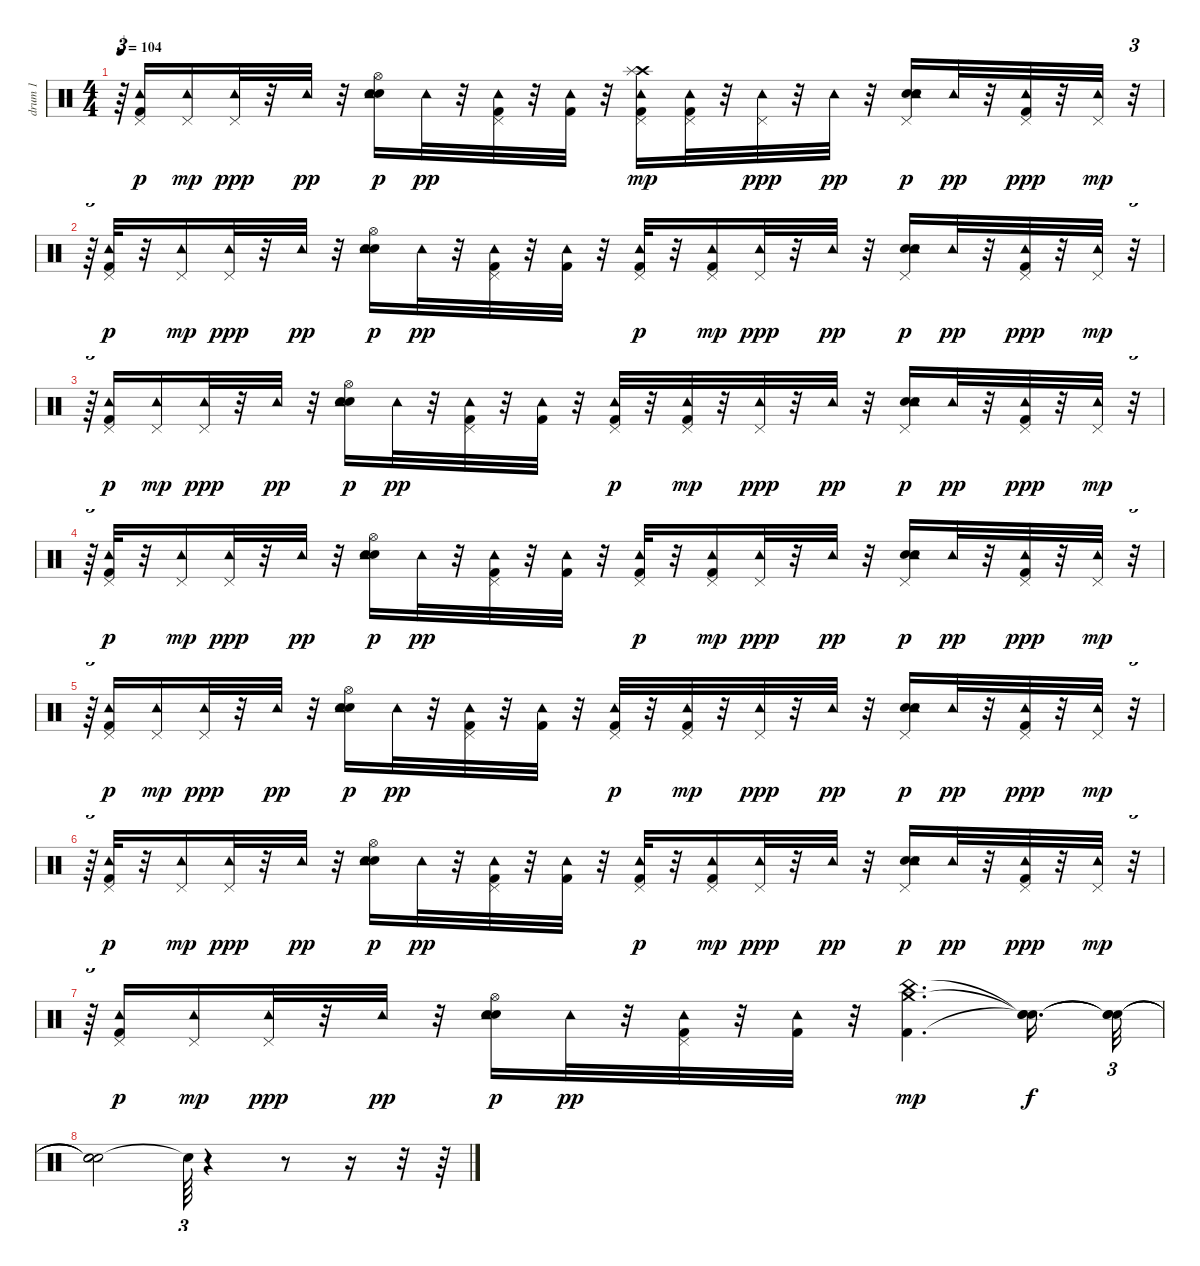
\track ("drum 1" "drum 1") {instrument percussion}
\staff {score}
\articulation defaults
\ts (4 4)
\tempo 104
\clef neutral
\ks c
r.64{tu (3 2) dy mp} ("Kick (hit) 2" "Pedal Hi-Hat (hit)" "Tambourine (hit)").16{dy p} ("Tambourine (hit)" "Pedal Hi-Hat (hit)").16{dy mp} ("Pedal Hi-Hat (hit)" "Tambourine (hit)").32{dy ppp} r.32 "Tambourine (hit)".32{dy pp} r.32 ("Hand Clap (hit)" "Electric Snare (hit)" "Hi-Hat (open)" "Tambourine (hit)").16{dy p} "Tambourine (hit)".32{dy pp} r.32 ("Kick (hit) 2" "Pedal Hi-Hat (hit)" "Tambourine (hit)").32 r.32 ("Kick (hit) 2" "Tambourine (hit)").32 r.32 ("Kick (hit) 2" "Pedal Hi-Hat (hit)" "Crash high (hit)" "Tambourine (hit)" "Splash (hit)").16{dy mp} ("Kick (hit) 2" "Tambourine (hit)" "Pedal Hi-Hat (hit)").32 r.32 ("Pedal Hi-Hat (hit)" "Tambourine (hit)").32{dy ppp} r.32 "Tambourine (hit)".32{dy pp} r.32 ("Hand Clap (hit)" "Electric Snare (hit)" "Pedal Hi-Hat (hit)" "Tambourine (hit)").16{dy p} "Tambourine (hit)".32{dy pp} r.32 ("Kick (hit) 2" "Pedal Hi-Hat (hit)" "Tambourine (hit)").32{dy ppp} r.32 ("Tambourine (hit)" "Pedal Hi-Hat (hit)").32{dy mp} r.32{tu (3 2)} |
r.64{tu (3 2)} ("Kick (hit) 2" "Pedal Hi-Hat (hit)" "Tambourine (hit)").32{dy p} r.32 ("Tambourine (hit)" "Pedal Hi-Hat (hit)").16{dy mp} ("Pedal Hi-Hat (hit)" "Tambourine (hit)").32{dy ppp} r.32 "Tambourine (hit)".32{dy pp} r.32 ("Hand Clap (hit)" "Electric Snare (hit)" "Hi-Hat (open)" "Tambourine (hit)").16{dy p} "Tambourine (hit)".32{dy pp} r.32 ("Kick (hit) 2" "Pedal Hi-Hat (hit)" "Tambourine (hit)").32 r.32 ("Kick (hit) 2" "Tambourine (hit)").32 r.32 ("Kick (hit) 2" "Pedal Hi-Hat (hit)" "Tambourine (hit)").32{dy p} r.32 ("Kick (hit) 2" "Tambourine (hit)" "Pedal Hi-Hat (hit)").16{dy mp} ("Pedal Hi-Hat (hit)" "Tambourine (hit)").32{dy ppp} r.32 "Tambourine (hit)".32{dy pp} r.32 ("Hand Clap (hit)" "Electric Snare (hit)" "Pedal Hi-Hat (hit)" "Tambourine (hit)").16{dy p} "Tambourine (hit)".32{dy pp} r.32 ("Kick (hit) 2" "Pedal Hi-Hat (hit)" "Tambourine (hit)").32{dy ppp} r.32 ("Tambourine (hit)" "Pedal Hi-Hat (hit)").32{dy mp} r.32{tu (3 2)} |
r.64{tu (3 2)} ("Kick (hit) 2" "Pedal Hi-Hat (hit)" "Tambourine (hit)").16{dy p} ("Tambourine (hit)" "Pedal Hi-Hat (hit)").16{dy mp} ("Pedal Hi-Hat (hit)" "Tambourine (hit)").32{dy ppp} r.32 "Tambourine (hit)".32{dy pp} r.32 ("Hand Clap (hit)" "Electric Snare (hit)" "Hi-Hat (open)" "Tambourine (hit)").16{dy p} "Tambourine (hit)".32{dy pp} r.32 ("Kick (hit) 2" "Pedal Hi-Hat (hit)" "Tambourine (hit)").32 r.32 ("Kick (hit) 2" "Tambourine (hit)").32 r.32 ("Kick (hit) 2" "Pedal Hi-Hat (hit)" "Tambourine (hit)").32{dy p} r.32 ("Kick (hit) 2" "Tambourine (hit)" "Pedal Hi-Hat (hit)").32{dy mp} r.32 ("Pedal Hi-Hat (hit)" "Tambourine (hit)").32{dy ppp} r.32 "Tambourine (hit)".32{dy pp} r.32 ("Hand Clap (hit)" "Electric Snare (hit)" "Pedal Hi-Hat (hit)" "Tambourine (hit)").16{dy p} "Tambourine (hit)".32{dy pp} r.32 ("Kick (hit) 2" "Pedal Hi-Hat (hit)" "Tambourine (hit)").32{dy ppp} r.32 ("Tambourine (hit)" "Pedal Hi-Hat (hit)").32{dy mp} r.32{tu (3 2)} |
r.64{tu (3 2)} ("Kick (hit) 2" "Pedal Hi-Hat (hit)" "Tambourine (hit)").32{dy p} r.32 ("Tambourine (hit)" "Pedal Hi-Hat (hit)").16{dy mp} ("Pedal Hi-Hat (hit)" "Tambourine (hit)").32{dy ppp} r.32 "Tambourine (hit)".32{dy pp} r.32 ("Hand Clap (hit)" "Electric Snare (hit)" "Hi-Hat (open)" "Tambourine (hit)").16{dy p} "Tambourine (hit)".32{dy pp} r.32 ("Kick (hit) 2" "Pedal Hi-Hat (hit)" "Tambourine (hit)").32 r.32 ("Kick (hit) 2" "Tambourine (hit)").32 r.32 ("Kick (hit) 2" "Pedal Hi-Hat (hit)" "Tambourine (hit)").32{dy p} r.32 ("Kick (hit) 2" "Tambourine (hit)" "Pedal Hi-Hat (hit)").16{dy mp} ("Pedal Hi-Hat (hit)" "Tambourine (hit)").32{dy ppp} r.32 "Tambourine (hit)".32{dy pp} r.32 ("Hand Clap (hit)" "Electric Snare (hit)" "Pedal Hi-Hat (hit)" "Tambourine (hit)").16{dy p} "Tambourine (hit)".32{dy pp} r.32 ("Kick (hit) 2" "Pedal Hi-Hat (hit)" "Tambourine (hit)").32{dy ppp} r.32 ("Tambourine (hit)" "Pedal Hi-Hat (hit)").32{dy mp} r.32{tu (3 2)} |
r.64{tu (3 2)} ("Kick (hit) 2" "Pedal Hi-Hat (hit)" "Tambourine (hit)").16{dy p} ("Tambourine (hit)" "Pedal Hi-Hat (hit)").16{dy mp} ("Pedal Hi-Hat (hit)" "Tambourine (hit)").32{dy ppp} r.32 "Tambourine (hit)".32{dy pp} r.32 ("Hand Clap (hit)" "Electric Snare (hit)" "Hi-Hat (open)" "Tambourine (hit)").16{dy p} "Tambourine (hit)".32{dy pp} r.32 ("Kick (hit) 2" "Pedal Hi-Hat (hit)" "Tambourine (hit)").32 r.32 ("Kick (hit) 2" "Tambourine (hit)").32 r.32 ("Kick (hit) 2" "Pedal Hi-Hat (hit)" "Tambourine (hit)").32{dy p} r.32 ("Kick (hit) 2" "Tambourine (hit)" "Pedal Hi-Hat (hit)").32{dy mp} r.32 ("Pedal Hi-Hat (hit)" "Tambourine (hit)").32{dy ppp} r.32 "Tambourine (hit)".32{dy pp} r.32 ("Hand Clap (hit)" "Electric Snare (hit)" "Pedal Hi-Hat (hit)" "Tambourine (hit)").16{dy p} "Tambourine (hit)".32{dy pp} r.32 ("Kick (hit) 2" "Pedal Hi-Hat (hit)" "Tambourine (hit)").32{dy ppp} r.32 ("Tambourine (hit)" "Pedal Hi-Hat (hit)").32{dy mp} r.32{tu (3 2)} |
r.64{tu (3 2)} ("Kick (hit) 2" "Pedal Hi-Hat (hit)" "Tambourine (hit)").32{dy p} r.32 ("Tambourine (hit)" "Pedal Hi-Hat (hit)").16{dy mp} ("Pedal Hi-Hat (hit)" "Tambourine (hit)").32{dy ppp} r.32 "Tambourine (hit)".32{dy pp} r.32 ("Hand Clap (hit)" "Electric Snare (hit)" "Hi-Hat (open)" "Tambourine (hit)").16{dy p} "Tambourine (hit)".32{dy pp} r.32 ("Kick (hit) 2" "Pedal Hi-Hat (hit)" "Tambourine (hit)").32 r.32 ("Kick (hit) 2" "Tambourine (hit)").32 r.32 ("Kick (hit) 2" "Pedal Hi-Hat (hit)" "Tambourine (hit)").32{dy p} r.32 ("Kick (hit) 2" "Tambourine (hit)" "Pedal Hi-Hat (hit)").16{dy mp} ("Pedal Hi-Hat (hit)" "Tambourine (hit)").32{dy ppp} r.32 "Tambourine (hit)".32{dy pp} r.32 ("Hand Clap (hit)" "Electric Snare (hit)" "Pedal Hi-Hat (hit)" "Tambourine (hit)").16{dy p} "Tambourine (hit)".32{dy pp} r.32 ("Kick (hit) 2" "Pedal Hi-Hat (hit)" "Tambourine (hit)").32{dy ppp} r.32 ("Tambourine (hit)" "Pedal Hi-Hat (hit)").32{dy mp} r.32{tu (3 2)} |
r.64{tu (3 2)} ("Kick (hit) 2" "Pedal Hi-Hat (hit)" "Tambourine (hit)").16{dy p} ("Tambourine (hit)" "Pedal Hi-Hat (hit)").16{dy mp} ("Pedal Hi-Hat (hit)" "Tambourine (hit)").32{dy ppp} r.32 "Tambourine (hit)".32{dy pp} r.32 ("Hand Clap (hit)" "Electric Snare (hit)" "Hi-Hat (open)" "Tambourine (hit)").16{dy p} "Tambourine (hit)".32{dy pp} r.32 ("Kick (hit) 2" "Pedal Hi-Hat (hit)" "Tambourine (hit)").32 r.32 ("Kick (hit) 2" "Tambourine (hit)").32 r.32 ("Kick (hit) 2" "China (hit)" "Crash medium (hit)").4{d dy mp} ("Snare (hit)"{t} "Snare (hit)"{t} "Snare (hit)"{t}).16{d dy f} ("Snare (hit)"{t} "Snare (hit)"{t} "Snare (hit)"{t}).32{tu (3 2)} |
("Snare (hit)"{t} "Snare (hit)"{t} "Snare (hit)"{t}).2 "Snare (hit)"{t}.64{tu (3 2)} r.4 r.8 r.16 r.32 r.64
